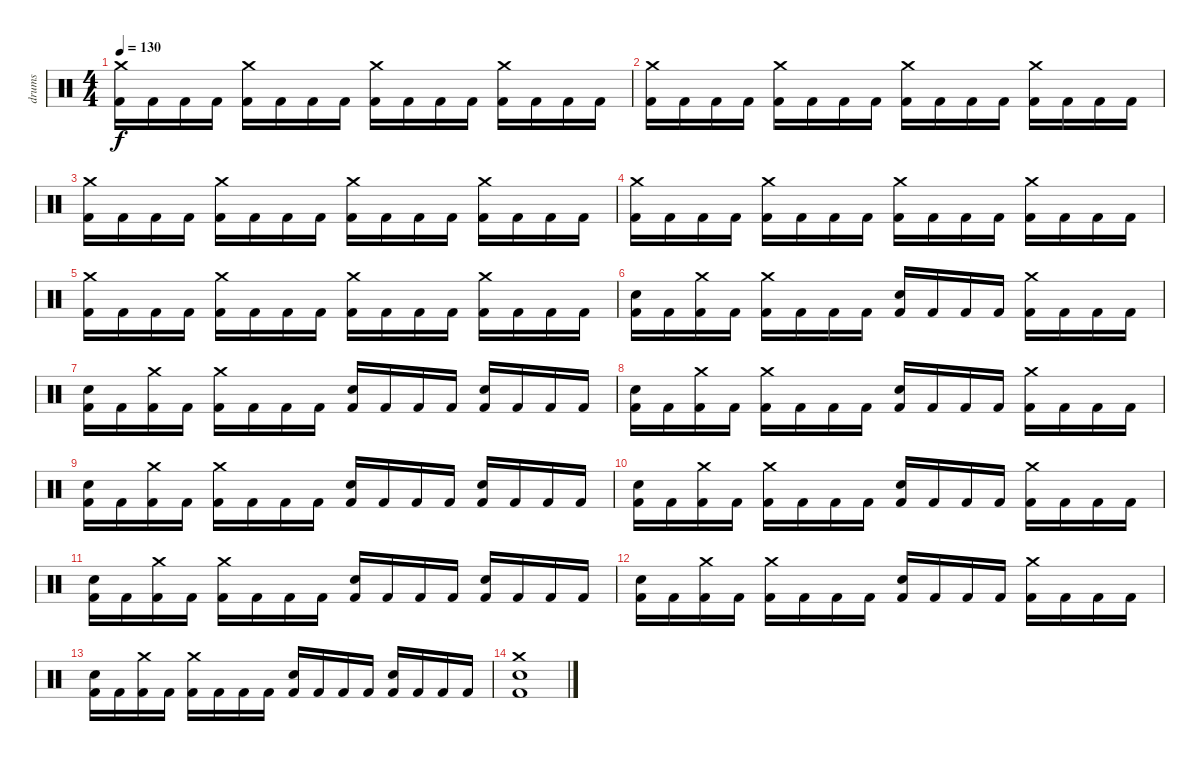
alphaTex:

\track ("drums" "drums") {instrument percussion}
\staff {score}
\articulation defaults
\ts (4 4)
\tempo 130
\clef neutral
\ks c
("Crash medium (hit)" "Kick (hit) 2").16{dy f} "Kick (hit) 2".16 "Kick (hit) 2".16 "Kick (hit) 2".16 ("Crash medium (hit)" "Kick (hit) 2").16 "Kick (hit) 2".16 "Kick (hit) 2".16 "Kick (hit) 2".16 ("Crash medium (hit)" "Kick (hit) 2").16 "Kick (hit) 2".16 "Kick (hit) 2".16 "Kick (hit) 2".16 ("Crash medium (hit)" "Kick (hit) 2").16 "Kick (hit) 2".16 "Kick (hit) 2".16 "Kick (hit) 2".16 |
("Crash medium (hit)" "Kick (hit) 2").16 "Kick (hit) 2".16 "Kick (hit) 2".16 "Kick (hit) 2".16 ("Crash medium (hit)" "Kick (hit) 2").16 "Kick (hit) 2".16 "Kick (hit) 2".16 "Kick (hit) 2".16 ("Crash medium (hit)" "Kick (hit) 2").16 "Kick (hit) 2".16 "Kick (hit) 2".16 "Kick (hit) 2".16 ("Crash medium (hit)" "Kick (hit) 2").16 "Kick (hit) 2".16 "Kick (hit) 2".16 "Kick (hit) 2".16 |
("Crash medium (hit)" "Kick (hit) 2").16 "Kick (hit) 2".16 "Kick (hit) 2".16 "Kick (hit) 2".16 ("Crash medium (hit)" "Kick (hit) 2").16 "Kick (hit) 2".16 "Kick (hit) 2".16 "Kick (hit) 2".16 ("Crash medium (hit)" "Kick (hit) 2").16 "Kick (hit) 2".16 "Kick (hit) 2".16 "Kick (hit) 2".16 ("Crash medium (hit)" "Kick (hit) 2").16 "Kick (hit) 2".16 "Kick (hit) 2".16 "Kick (hit) 2".16 |
("Crash medium (hit)" "Kick (hit) 2").16 "Kick (hit) 2".16 "Kick (hit) 2".16 "Kick (hit) 2".16 ("Crash medium (hit)" "Kick (hit) 2").16 "Kick (hit) 2".16 "Kick (hit) 2".16 "Kick (hit) 2".16 ("Crash medium (hit)" "Kick (hit) 2").16 "Kick (hit) 2".16 "Kick (hit) 2".16 "Kick (hit) 2".16 ("Crash medium (hit)" "Kick (hit) 2").16 "Kick (hit) 2".16 "Kick (hit) 2".16 "Kick (hit) 2".16 |
("Crash medium (hit)" "Kick (hit) 2").16 "Kick (hit) 2".16 "Kick (hit) 2".16 "Kick (hit) 2".16 ("Crash medium (hit)" "Kick (hit) 2").16 "Kick (hit) 2".16 "Kick (hit) 2".16 "Kick (hit) 2".16 ("Crash medium (hit)" "Kick (hit) 2").16 "Kick (hit) 2".16 "Kick (hit) 2".16 "Kick (hit) 2".16 ("Crash medium (hit)" "Kick (hit) 2").16 "Kick (hit) 2".16 "Kick (hit) 2".16 "Kick (hit) 2".16 |
("Electric Snare (hit)" "Kick (hit) 2").16 "Kick (hit) 2".16 ("Crash medium (hit)" "Kick (hit) 2").16 "Kick (hit) 2".16 ("Crash medium (hit)" "Kick (hit) 2").16 "Kick (hit) 2".16 "Kick (hit) 2".16 "Kick (hit) 2".16 ("Electric Snare (hit)" "Kick (hit) 2").16 "Kick (hit) 2".16 "Kick (hit) 2".16 "Kick (hit) 2".16 ("Crash medium (hit)" "Kick (hit) 2").16 "Kick (hit) 2".16 "Kick (hit) 2".16 "Kick (hit) 2".16 |
("Electric Snare (hit)" "Kick (hit) 2").16 "Kick (hit) 2".16 ("Crash medium (hit)" "Kick (hit) 2").16 "Kick (hit) 2".16 ("Crash medium (hit)" "Kick (hit) 2").16 "Kick (hit) 2".16 "Kick (hit) 2".16 "Kick (hit) 2".16 ("Electric Snare (hit)" "Kick (hit) 2").16 "Kick (hit) 2".16 "Kick (hit) 2".16 "Kick (hit) 2".16 ("Electric Snare (hit)" "Kick (hit) 2").16 "Kick (hit) 2".16 "Kick (hit) 2".16 "Kick (hit) 2".16 |
("Electric Snare (hit)" "Kick (hit) 2").16 "Kick (hit) 2".16 ("Crash medium (hit)" "Kick (hit) 2").16 "Kick (hit) 2".16 ("Crash medium (hit)" "Kick (hit) 2").16 "Kick (hit) 2".16 "Kick (hit) 2".16 "Kick (hit) 2".16 ("Electric Snare (hit)" "Kick (hit) 2").16 "Kick (hit) 2".16 "Kick (hit) 2".16 "Kick (hit) 2".16 ("Crash medium (hit)" "Kick (hit) 2").16 "Kick (hit) 2".16 "Kick (hit) 2".16 "Kick (hit) 2".16 |
("Electric Snare (hit)" "Kick (hit) 2").16 "Kick (hit) 2".16 ("Crash medium (hit)" "Kick (hit) 2").16 "Kick (hit) 2".16 ("Crash medium (hit)" "Kick (hit) 2").16 "Kick (hit) 2".16 "Kick (hit) 2".16 "Kick (hit) 2".16 ("Electric Snare (hit)" "Kick (hit) 2").16 "Kick (hit) 2".16 "Kick (hit) 2".16 "Kick (hit) 2".16 ("Electric Snare (hit)" "Kick (hit) 2").16 "Kick (hit) 2".16 "Kick (hit) 2".16 "Kick (hit) 2".16 |
("Electric Snare (hit)" "Kick (hit) 2").16 "Kick (hit) 2".16 ("Crash medium (hit)" "Kick (hit) 2").16 "Kick (hit) 2".16 ("Crash medium (hit)" "Kick (hit) 2").16 "Kick (hit) 2".16 "Kick (hit) 2".16 "Kick (hit) 2".16 ("Electric Snare (hit)" "Kick (hit) 2").16 "Kick (hit) 2".16 "Kick (hit) 2".16 "Kick (hit) 2".16 ("Crash medium (hit)" "Kick (hit) 2").16 "Kick (hit) 2".16 "Kick (hit) 2".16 "Kick (hit) 2".16 |
("Electric Snare (hit)" "Kick (hit) 2").16 "Kick (hit) 2".16 ("Crash medium (hit)" "Kick (hit) 2").16 "Kick (hit) 2".16 ("Crash medium (hit)" "Kick (hit) 2").16 "Kick (hit) 2".16 "Kick (hit) 2".16 "Kick (hit) 2".16 ("Electric Snare (hit)" "Kick (hit) 2").16 "Kick (hit) 2".16 "Kick (hit) 2".16 "Kick (hit) 2".16 ("Electric Snare (hit)" "Kick (hit) 2").16 "Kick (hit) 2".16 "Kick (hit) 2".16 "Kick (hit) 2".16 |
("Electric Snare (hit)" "Kick (hit) 2").16 "Kick (hit) 2".16 ("Crash medium (hit)" "Kick (hit) 2").16 "Kick (hit) 2".16 ("Crash medium (hit)" "Kick (hit) 2").16 "Kick (hit) 2".16 "Kick (hit) 2".16 "Kick (hit) 2".16 ("Electric Snare (hit)" "Kick (hit) 2").16 "Kick (hit) 2".16 "Kick (hit) 2".16 "Kick (hit) 2".16 ("Crash medium (hit)" "Kick (hit) 2").16 "Kick (hit) 2".16 "Kick (hit) 2".16 "Kick (hit) 2".16 |
("Electric Snare (hit)" "Kick (hit) 2").16 "Kick (hit) 2".16 ("Crash medium (hit)" "Kick (hit) 2").16 "Kick (hit) 2".16 ("Crash medium (hit)" "Kick (hit) 2").16 "Kick (hit) 2".16 "Kick (hit) 2".16 "Kick (hit) 2".16 ("Electric Snare (hit)" "Kick (hit) 2").16 "Kick (hit) 2".16 "Kick (hit) 2".16 "Kick (hit) 2".16 ("Electric Snare (hit)" "Kick (hit) 2").16 "Kick (hit) 2".16 "Kick (hit) 2".16 "Kick (hit) 2".16 |
("Crash medium (hit)" "Electric Snare (hit)" "Kick (hit) 2").1
